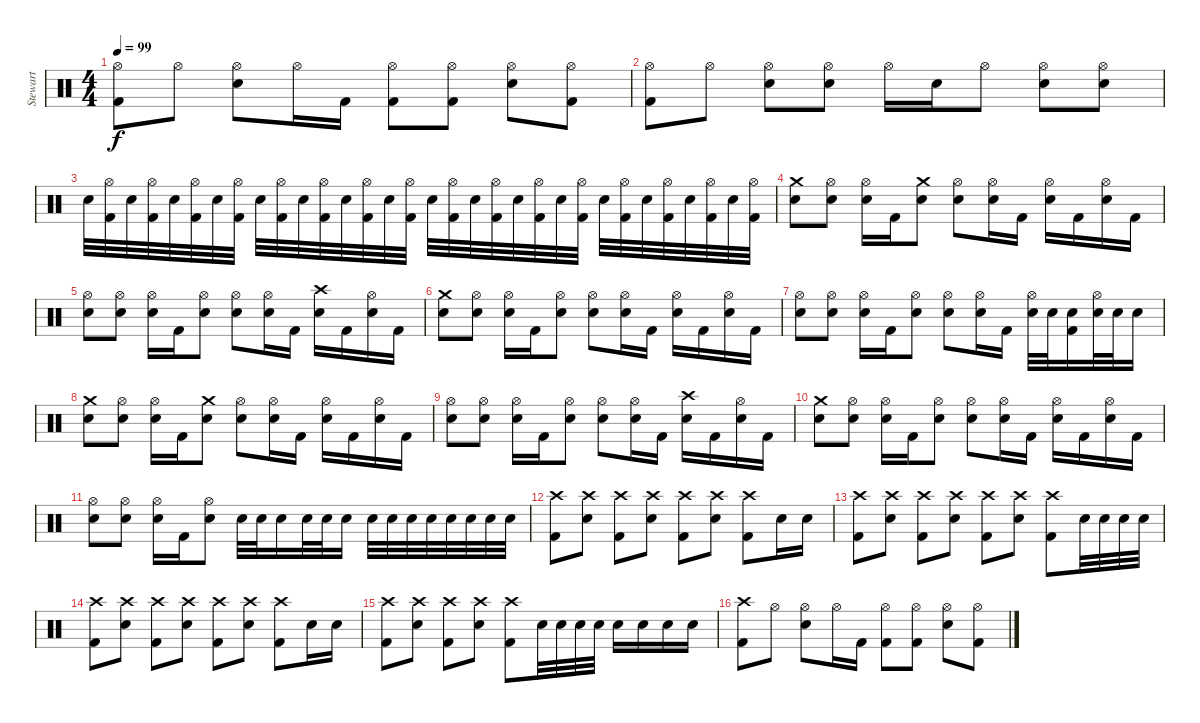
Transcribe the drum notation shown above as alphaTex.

\track ("Stewart" "Stewart") {instrument percussion}
\staff {score}
\articulation defaults
\ts (4 4)
\tempo 99
\clef neutral
\ks c
("Hi-Hat (open)" "Kick (hit) 2").8{dy f} "Hi-Hat (open)".8 ("Hi-Hat (open)" "Snare (hit) 2").8 "Hi-Hat (open)".16 "Kick (hit) 2".16 ("Hi-Hat (open)" "Kick (hit) 2").8 ("Hi-Hat (open)" "Kick (hit) 2").8 ("Hi-Hat (open)" "Snare (hit) 2").8 ("Hi-Hat (open)" "Kick (hit) 2").8 |
("Hi-Hat (open)" "Kick (hit) 2").8 "Hi-Hat (open)".8 ("Hi-Hat (open)" "Snare (hit) 2").8 ("Hi-Hat (open)" "Snare (hit) 2").8 "Hi-Hat (open)".16 "Snare (hit) 2".16 "Hi-Hat (open)".8 ("Hi-Hat (open)" "Snare (hit) 2").8 ("Hi-Hat (open)" "Snare (hit) 2").8 |
"Snare (hit) 2".32 ("Hi-Hat (open)" "Kick (hit) 2").32 "Snare (hit) 2".32 ("Hi-Hat (open)" "Kick (hit) 2").32 "Snare (hit) 2".32 ("Hi-Hat (open)" "Kick (hit) 2").32 "Snare (hit) 2".32 ("Hi-Hat (open)" "Kick (hit) 2").32 "Snare (hit) 2".32 ("Hi-Hat (open)" "Kick (hit) 2").32 "Snare (hit) 2".32 ("Hi-Hat (open)" "Kick (hit) 2").32 "Snare (hit) 2".32 ("Hi-Hat (open)" "Kick (hit) 2").32 "Snare (hit) 2".32 ("Hi-Hat (open)" "Kick (hit) 2").32 "Snare (hit) 2".32 ("Hi-Hat (open)" "Kick (hit) 2").32 "Snare (hit) 2".32 ("Hi-Hat (open)" "Kick (hit) 2").32 "Snare (hit) 2".32 ("Hi-Hat (open)" "Kick (hit) 2").32 "Snare (hit) 2".32 ("Hi-Hat (open)" "Kick (hit) 2").32 "Snare (hit) 2".32 ("Hi-Hat (open)" "Kick (hit) 2").32 "Snare (hit) 2".32 ("Hi-Hat (open)" "Kick (hit) 2").32 "Snare (hit) 2".32 ("Hi-Hat (open)" "Kick (hit) 2").32 "Snare (hit) 2".32 ("Hi-Hat (open)" "Kick (hit) 2").32 |
("Crash medium (hit)" "Snare (hit) 2").8 ("Hi-Hat (open)" "Snare (hit) 2").8 ("Hi-Hat (open)" "Snare (hit) 2").16 "Kick (hit) 2".16 ("Crash medium (hit)" "Snare (hit) 2").8 ("Hi-Hat (open)" "Snare (hit) 2").8 ("Hi-Hat (open)" "Snare (hit) 2").16 "Kick (hit) 2".16 ("Hi-Hat (open)" "Snare (hit) 2").16 "Kick (hit) 2".16 ("Hi-Hat (open)" "Snare (hit) 2").16 "Kick (hit) 2".16 |
("Hi-Hat (open)" "Snare (hit) 2").8 ("Hi-Hat (open)" "Snare (hit) 2").8 ("Hi-Hat (open)" "Snare (hit) 2").16 "Kick (hit) 2".16 ("Hi-Hat (open)" "Snare (hit) 2").8 ("Hi-Hat (open)" "Snare (hit) 2").8 ("Hi-Hat (open)" "Snare (hit) 2").16 "Kick (hit) 2".16 ("Crash high (hit)" "Snare (hit) 2").16 "Kick (hit) 2".16 ("Hi-Hat (open)" "Snare (hit) 2").16 "Kick (hit) 2".16 |
("Crash medium (hit)" "Snare (hit) 2").8 ("Hi-Hat (open)" "Snare (hit) 2").8 ("Hi-Hat (open)" "Snare (hit) 2").16 "Kick (hit) 2".16 ("Hi-Hat (open)" "Snare (hit) 2").8 ("Hi-Hat (open)" "Snare (hit) 2").8 ("Hi-Hat (open)" "Snare (hit) 2").16 "Kick (hit) 2".16 ("Hi-Hat (open)" "Snare (hit) 2").16 "Kick (hit) 2".16 ("Hi-Hat (open)" "Snare (hit) 2").16 "Kick (hit) 2".16 |
("Hi-Hat (open)" "Snare (hit) 2").8 ("Hi-Hat (open)" "Snare (hit) 2").8 ("Hi-Hat (open)" "Snare (hit) 2").16 "Kick (hit) 2".16 ("Hi-Hat (open)" "Snare (hit) 2").8 ("Hi-Hat (open)" "Snare (hit) 2").8 ("Hi-Hat (open)" "Snare (hit) 2").16 "Kick (hit) 2".16 ("Hi-Hat (open)" "Snare (hit) 2").32 "Snare (hit) 2".32 ("Snare (hit) 2" "Kick (hit) 2").16 ("Hi-Hat (open)" "Snare (hit) 2").32 "Snare (hit) 2".32 "Snare (hit) 2".16 |
("Crash medium (hit)" "Snare (hit) 2").8 ("Hi-Hat (open)" "Snare (hit) 2").8 ("Hi-Hat (open)" "Snare (hit) 2").16 "Kick (hit) 2".16 ("Crash medium (hit)" "Snare (hit) 2").8 ("Hi-Hat (open)" "Snare (hit) 2").8 ("Hi-Hat (open)" "Snare (hit) 2").16 "Kick (hit) 2".16 ("Hi-Hat (open)" "Snare (hit) 2").16 "Kick (hit) 2".16 ("Hi-Hat (open)" "Snare (hit) 2").16 "Kick (hit) 2".16 |
("Hi-Hat (open)" "Snare (hit) 2").8 ("Hi-Hat (open)" "Snare (hit) 2").8 ("Hi-Hat (open)" "Snare (hit) 2").16 "Kick (hit) 2".16 ("Hi-Hat (open)" "Snare (hit) 2").8 ("Hi-Hat (open)" "Snare (hit) 2").8 ("Hi-Hat (open)" "Snare (hit) 2").16 "Kick (hit) 2".16 ("Crash high (hit)" "Snare (hit) 2").16 "Kick (hit) 2".16 ("Hi-Hat (open)" "Snare (hit) 2").16 "Kick (hit) 2".16 |
("Crash medium (hit)" "Snare (hit) 2").8 ("Hi-Hat (open)" "Snare (hit) 2").8 ("Hi-Hat (open)" "Snare (hit) 2").16 "Kick (hit) 2".16 ("Hi-Hat (open)" "Snare (hit) 2").8 ("Hi-Hat (open)" "Snare (hit) 2").8 ("Hi-Hat (open)" "Snare (hit) 2").16 "Kick (hit) 2".16 ("Hi-Hat (open)" "Snare (hit) 2").16 "Kick (hit) 2".16 ("Hi-Hat (open)" "Snare (hit) 2").16 "Kick (hit) 2".16 |
("Hi-Hat (open)" "Snare (hit) 2").8 ("Hi-Hat (open)" "Snare (hit) 2").8 ("Hi-Hat (open)" "Snare (hit) 2").16 "Kick (hit) 2".16 ("Hi-Hat (open)" "Snare (hit) 2").8 "Snare (hit) 2".32 "Snare (hit) 2".32 "Snare (hit) 2".16 "Snare (hit) 2".32 "Snare (hit) 2".32 "Snare (hit) 2".16 "Snare (hit) 2".32 "Snare (hit) 2".32 "Snare (hit) 2".32 "Snare (hit) 2".32 "Snare (hit) 2".32 "Snare (hit) 2".32 "Snare (hit) 2".32 "Snare (hit) 2".32 |
("Crash high (hit)" "Kick (hit) 2").8 ("Crash high (hit)" "Snare (hit) 2").8 ("Crash high (hit)" "Kick (hit) 2").8 ("Crash high (hit)" "Snare (hit) 2").8 ("Crash high (hit)" "Kick (hit) 2").8 ("Crash high (hit)" "Snare (hit) 2").8 ("Crash high (hit)" "Kick (hit) 2").8 "Snare (hit) 2".16 "Snare (hit) 2".16 |
("Crash high (hit)" "Kick (hit) 2").8 ("Crash high (hit)" "Snare (hit) 2").8 ("Crash high (hit)" "Kick (hit) 2").8 ("Crash high (hit)" "Snare (hit) 2").8 ("Crash high (hit)" "Kick (hit) 2").8 ("Crash high (hit)" "Snare (hit) 2").8 ("Crash high (hit)" "Kick (hit) 2").8 "Snare (hit) 2".32 "Snare (hit) 2".32 "Snare (hit) 2".32 "Snare (hit) 2".32 |
("Crash high (hit)" "Kick (hit) 2").8 ("Crash high (hit)" "Snare (hit) 2").8 ("Crash high (hit)" "Kick (hit) 2").8 ("Crash high (hit)" "Snare (hit) 2").8 ("Crash high (hit)" "Kick (hit) 2").8 ("Crash high (hit)" "Snare (hit) 2").8 ("Crash high (hit)" "Kick (hit) 2").8 "Snare (hit) 2".16 "Snare (hit) 2".16 |
("Crash high (hit)" "Kick (hit) 2").8 ("Crash high (hit)" "Snare (hit) 2").8 ("Crash high (hit)" "Kick (hit) 2").8 ("Crash high (hit)" "Snare (hit) 2").8 ("Crash high (hit)" "Kick (hit) 2").8 "Snare (hit) 2".32 "Snare (hit) 2".32 "Snare (hit) 2".32 "Snare (hit) 2".32 "Snare (hit) 2".16 "Snare (hit) 2".16 "Snare (hit) 2".16 "Snare (hit) 2".16 |
("Crash high (hit)" "Kick (hit) 2").8 "Hi-Hat (open)".8 ("Hi-Hat (open)" "Snare (hit) 2").8 "Hi-Hat (open)".16 "Kick (hit) 2".16 ("Hi-Hat (open)" "Kick (hit) 2").8 ("Hi-Hat (open)" "Kick (hit) 2").8 ("Hi-Hat (open)" "Snare (hit) 2").8 ("Hi-Hat (open)" "Kick (hit) 2").8
